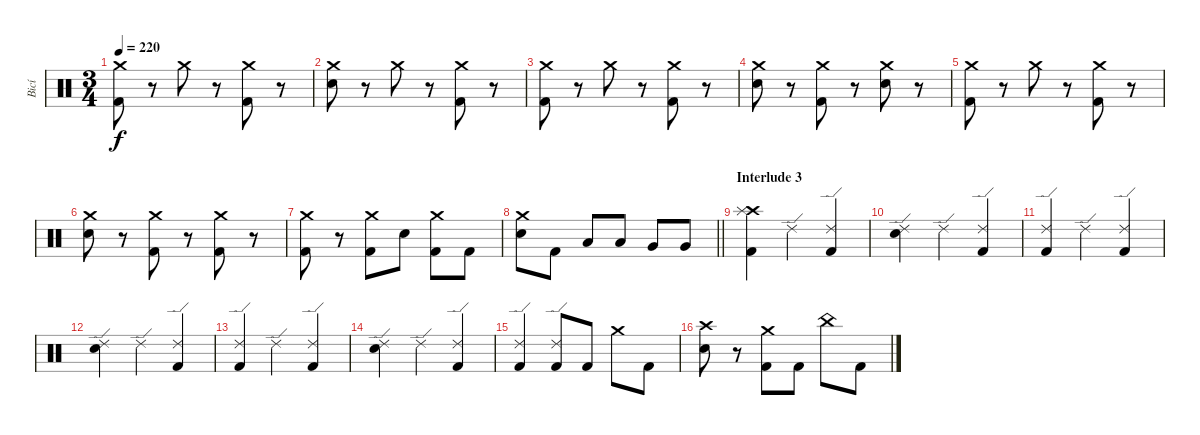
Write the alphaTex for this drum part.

\track ("Bicí" "Bicí") {instrument percussion}
\staff {score}
\articulation defaults
\ts (3 4)
\tempo 220
\clef neutral
\ks c
("Crash medium (hit)" "Kick (hit) 2").8{dy f} r.8 "Crash medium (hit)".8 r.8 ("Crash medium (hit)" "Kick (hit) 2").8 r.8 |
("Crash medium (hit)" "Electric Snare (hit)").8 r.8 "Crash medium (hit)".8 r.8 ("Crash medium (hit)" "Kick (hit) 2").8 r.8 |
("Crash medium (hit)" "Kick (hit) 2").8 r.8 "Crash medium (hit)".8 r.8 ("Crash medium (hit)" "Kick (hit) 2").8 r.8 |
("Crash medium (hit)" "Electric Snare (hit)").8 r.8 ("Crash medium (hit)" "Kick (hit) 2").8 r.8 ("Crash medium (hit)" "Electric Snare (hit)").8 r.8 |
("Crash medium (hit)" "Kick (hit) 2").8 r.8 "Crash medium (hit)".8 r.8 ("Crash medium (hit)" "Kick (hit) 2").8 r.8 |
("Crash medium (hit)" "Electric Snare (hit)").8 r.8 ("Crash medium (hit)" "Kick (hit) 2").8 r.8 ("Crash medium (hit)" "Kick (hit) 2").8 r.8 |
("Crash medium (hit)" "Kick (hit) 2").8 r.8 ("Crash medium (hit)" "Kick (hit) 2").8 "Electric Snare (hit)".8 ("Crash medium (hit)" "Kick (hit) 2").8 "Kick (hit) 2".8 |
\barLineRight lightlight
("Crash medium (hit)" "Electric Snare (hit)").8 "Kick (hit) 2".8 "Low Tom (hit)".8 "Low Tom (hit)".8 "Very Low Tom (hit)".8 "Very Low Tom (hit)".8 |
\section ("" "Interlude 3")
("Crash high (hit)" "Splash (hit)" "Kick (hit) 2").4 "Ride (edge) 2".4 ("Ride (edge) 2" "Kick (hit) 2").4 |
("Ride (edge) 2" "Electric Snare (hit)").4 "Ride (edge) 2".4 ("Ride (edge) 2" "Kick (hit) 2").4 |
("Ride (edge) 2" "Kick (hit) 2").4 "Ride (edge) 2".4 ("Ride (edge) 2" "Kick (hit) 2").4 |
("Ride (edge) 2" "Electric Snare (hit)").4 "Ride (edge) 2".4 ("Ride (edge) 2" "Kick (hit) 2").4 |
("Ride (edge) 2" "Kick (hit) 2").4 "Ride (edge) 2".4 ("Ride (edge) 2" "Kick (hit) 2").4 |
("Ride (edge) 2" "Electric Snare (hit)").4 "Ride (edge) 2".4 ("Ride (edge) 2" "Kick (hit) 2").4 |
("Ride (edge) 2" "Kick (hit) 2").4 ("Ride (edge) 2" "Kick (hit) 2").8 "Kick (hit) 2".8 "Crash medium (hit)".8 "Kick (hit) 2".8 |
("Crash high (hit)" "Electric Snare (hit)").8 r.8 ("Crash medium (hit)" "Kick (hit) 2").8 "Kick (hit) 2".8 "China (hit)".8 "Kick (hit) 2".8
